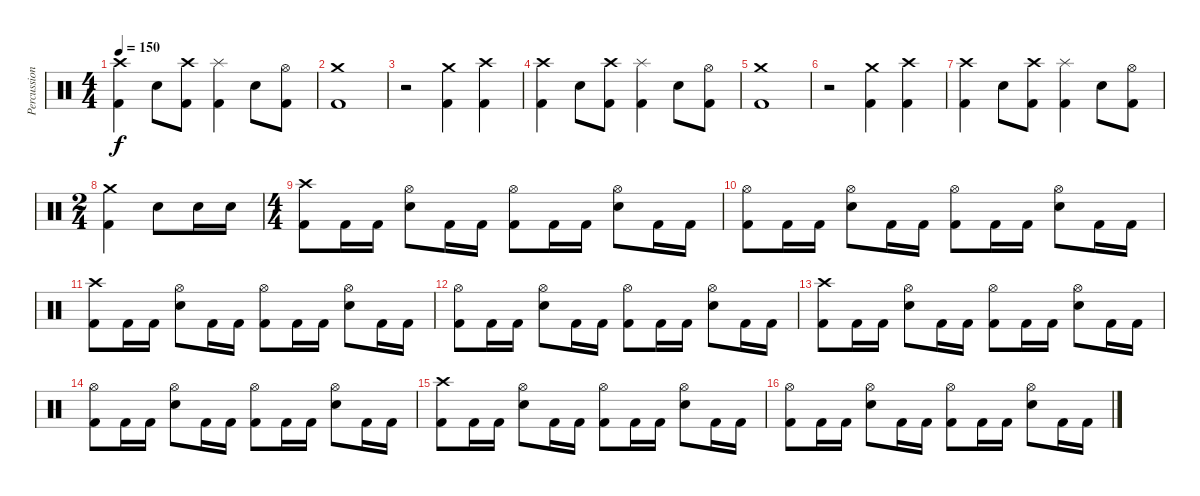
\track ("Percussion" "Percussion") {instrument percussion}
\staff {score}
\articulation defaults
\ts (4 4)
\tempo 150
\clef neutral
\ks c
("Kick (hit) 2" "Crash high (hit)").4{dy f} "Snare (hit) 2".8 ("Kick (hit) 2" "Crash high (hit)").8 ("Kick (hit) 2" "Splash (hit)").4 "Snare (hit) 2".8 ("Kick (hit) 2" "Hi-Hat (open)").8 |
("Kick (hit) 2" "Crash medium (hit)").1 |
r.2 ("Kick (hit) 2" "Crash medium (hit)").4 ("Kick (hit) 2" "Crash high (hit)").4 |
("Kick (hit) 2" "Crash high (hit)").4 "Snare (hit) 2".8 ("Kick (hit) 2" "Crash high (hit)").8 ("Kick (hit) 2" "Splash (hit)").4 "Snare (hit) 2".8 ("Kick (hit) 2" "Hi-Hat (open)").8 |
("Kick (hit) 2" "Crash medium (hit)").1 |
r.2 ("Kick (hit) 2" "Crash medium (hit)").4 ("Kick (hit) 2" "Crash high (hit)").4 |
("Kick (hit) 2" "Crash high (hit)").4 "Snare (hit) 2".8 ("Kick (hit) 2" "Crash high (hit)").8 ("Kick (hit) 2" "Splash (hit)").4 "Snare (hit) 2".8 ("Kick (hit) 2" "Hi-Hat (open)").8 |
\ts (2 4)
("Kick (hit) 2" "Crash medium (hit)").4 "Snare (hit) 2".8 "Snare (hit) 2".16 "Snare (hit) 2".16 |
\ts (4 4)
("Kick (hit) 2" "Crash high (hit)").8 "Kick (hit) 2".16 "Kick (hit) 2".16 ("Snare (hit) 2" "Hi-Hat (open)").8 "Kick (hit) 2".16 "Kick (hit) 2".16 ("Kick (hit) 2" "Hi-Hat (open)").8 "Kick (hit) 2".16 "Kick (hit) 2".16 ("Snare (hit) 2" "Hi-Hat (open)").8 "Kick (hit) 2".16 "Kick (hit) 2".16 |
("Kick (hit) 2" "Hi-Hat (open)").8 "Kick (hit) 2".16 "Kick (hit) 2".16 ("Snare (hit) 2" "Hi-Hat (open)").8 "Kick (hit) 2".16 "Kick (hit) 2".16 ("Kick (hit) 2" "Hi-Hat (open)").8 "Kick (hit) 2".16 "Kick (hit) 2".16 ("Snare (hit) 2" "Hi-Hat (open)").8 "Kick (hit) 2".16 "Kick (hit) 2".16 |
("Kick (hit) 2" "Crash high (hit)").8 "Kick (hit) 2".16 "Kick (hit) 2".16 ("Snare (hit) 2" "Hi-Hat (open)").8 "Kick (hit) 2".16 "Kick (hit) 2".16 ("Kick (hit) 2" "Hi-Hat (open)").8 "Kick (hit) 2".16 "Kick (hit) 2".16 ("Snare (hit) 2" "Hi-Hat (open)").8 "Kick (hit) 2".16 "Kick (hit) 2".16 |
("Kick (hit) 2" "Hi-Hat (open)").8 "Kick (hit) 2".16 "Kick (hit) 2".16 ("Snare (hit) 2" "Hi-Hat (open)").8 "Kick (hit) 2".16 "Kick (hit) 2".16 ("Kick (hit) 2" "Hi-Hat (open)").8 "Kick (hit) 2".16 "Kick (hit) 2".16 ("Snare (hit) 2" "Hi-Hat (open)").8 "Kick (hit) 2".16 "Kick (hit) 2".16 |
("Kick (hit) 2" "Crash high (hit)").8 "Kick (hit) 2".16 "Kick (hit) 2".16 ("Snare (hit) 2" "Hi-Hat (open)").8 "Kick (hit) 2".16 "Kick (hit) 2".16 ("Kick (hit) 2" "Hi-Hat (open)").8 "Kick (hit) 2".16 "Kick (hit) 2".16 ("Snare (hit) 2" "Hi-Hat (open)").8 "Kick (hit) 2".16 "Kick (hit) 2".16 |
("Kick (hit) 2" "Hi-Hat (open)").8 "Kick (hit) 2".16 "Kick (hit) 2".16 ("Snare (hit) 2" "Hi-Hat (open)").8 "Kick (hit) 2".16 "Kick (hit) 2".16 ("Kick (hit) 2" "Hi-Hat (open)").8 "Kick (hit) 2".16 "Kick (hit) 2".16 ("Snare (hit) 2" "Hi-Hat (open)").8 "Kick (hit) 2".16 "Kick (hit) 2".16 |
("Kick (hit) 2" "Crash high (hit)").8 "Kick (hit) 2".16 "Kick (hit) 2".16 ("Snare (hit) 2" "Hi-Hat (open)").8 "Kick (hit) 2".16 "Kick (hit) 2".16 ("Kick (hit) 2" "Hi-Hat (open)").8 "Kick (hit) 2".16 "Kick (hit) 2".16 ("Snare (hit) 2" "Hi-Hat (open)").8 "Kick (hit) 2".16 "Kick (hit) 2".16 |
("Kick (hit) 2" "Hi-Hat (open)").8 "Kick (hit) 2".16 "Kick (hit) 2".16 ("Snare (hit) 2" "Hi-Hat (open)").8 "Kick (hit) 2".16 "Kick (hit) 2".16 ("Kick (hit) 2" "Hi-Hat (open)").8 "Kick (hit) 2".16 "Kick (hit) 2".16 ("Snare (hit) 2" "Hi-Hat (open)").8 "Kick (hit) 2".16 "Kick (hit) 2".16
